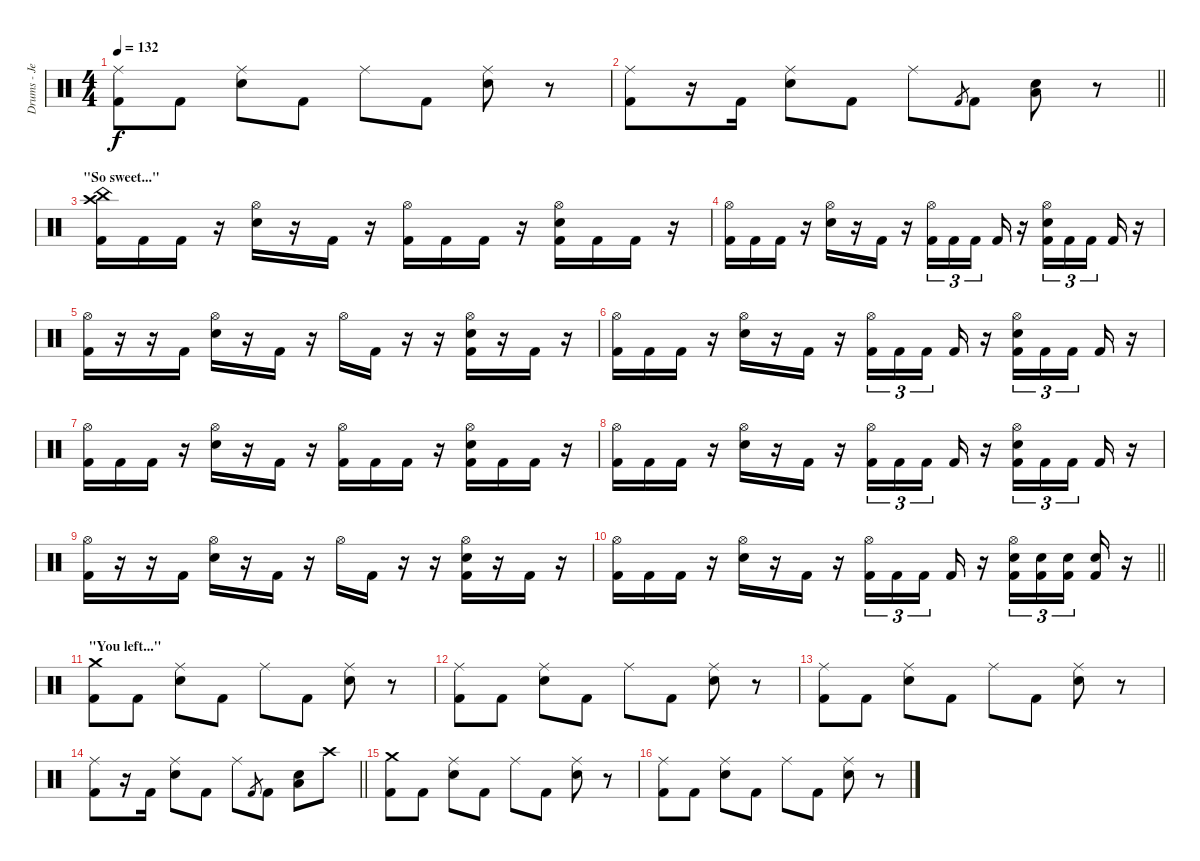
\track ("Drums - Jeroen" "Drums - Je") {instrument percussion}
\staff {score}
\articulation defaults
\ts (4 4)
\tempo 132
\clef neutral
\ks c
("Ride (middle)" "Kick (hit) 2").8{dy f} "Kick (hit) 2".8 ("Ride (middle)" "Electric Snare (hit)").8 "Kick (hit) 2".8 "Ride (middle)".8 "Kick (hit) 2".8 ("Ride (middle)" "Electric Snare (hit)").8 r.8 |
\barLineRight lightlight
("Ride (middle)" "Kick (hit) 2").8 r.16 "Kick (hit) 2".16 ("Ride (middle)" "Electric Snare (hit)").8 "Kick (hit) 2".8 "Ride (middle)".8 "Kick (hit) 2".8{gr} "Kick (hit) 2".8 ("Low Floor Tom (hit)" "Electric Snare (hit)").8 r.8 |
\section ("" "\"So sweet...\"")
("China (hit)" "Crash high (hit)" "Kick (hit) 2").16 "Kick (hit) 2".16 "Kick (hit) 2".16 r.16 ("Hi-Hat (open)" "Electric Snare (hit)").16 r.16 "Kick (hit) 2".16 r.16 ("Hi-Hat (open)" "Kick (hit) 2").16 "Kick (hit) 2".16 "Kick (hit) 2".16 r.16 ("Hi-Hat (open)" "Electric Snare (hit)" "Kick (hit) 2").16 "Kick (hit) 2".16 "Kick (hit) 2".16 r.16 |
("Hi-Hat (open)" "Kick (hit) 2").16 "Kick (hit) 2".16 "Kick (hit) 2".16 r.16 ("Hi-Hat (open)" "Electric Snare (hit)").16 r.16 "Kick (hit) 2".16 r.16 ("Hi-Hat (open)" "Kick (hit) 2").16{tu (3 2)} "Kick (hit) 2".16{tu (3 2)} "Kick (hit) 2".16{tu (3 2) beam splitsecondary} "Kick (hit) 2".16 r.16 ("Hi-Hat (open)" "Electric Snare (hit)" "Kick (hit) 2").16{tu (3 2)} "Kick (hit) 2".16{tu (3 2)} "Kick (hit) 2".16{tu (3 2) beam splitsecondary} "Kick (hit) 2".16 r.16 |
("Hi-Hat (open)" "Kick (hit) 2").16 r.16 r.16 "Kick (hit) 2".16 ("Hi-Hat (open)" "Electric Snare (hit)").16 r.16 "Kick (hit) 2".16 r.16 "Hi-Hat (open)".16 "Kick (hit) 2".16 r.16 r.16 ("Hi-Hat (open)" "Electric Snare (hit)" "Kick (hit) 2").16 r.16 "Kick (hit) 2".16 r.16 |
("Hi-Hat (open)" "Kick (hit) 2").16 "Kick (hit) 2".16 "Kick (hit) 2".16 r.16 ("Hi-Hat (open)" "Electric Snare (hit)").16 r.16 "Kick (hit) 2".16 r.16 ("Hi-Hat (open)" "Kick (hit) 2").16{tu (3 2)} "Kick (hit) 2".16{tu (3 2)} "Kick (hit) 2".16{tu (3 2) beam splitsecondary} "Kick (hit) 2".16 r.16 ("Hi-Hat (open)" "Electric Snare (hit)" "Kick (hit) 2").16{tu (3 2)} "Kick (hit) 2".16{tu (3 2)} "Kick (hit) 2".16{tu (3 2) beam splitsecondary} "Kick (hit) 2".16 r.16 |
("Hi-Hat (open)" "Kick (hit) 2").16 "Kick (hit) 2".16 "Kick (hit) 2".16 r.16 ("Hi-Hat (open)" "Electric Snare (hit)").16 r.16 "Kick (hit) 2".16 r.16 ("Hi-Hat (open)" "Kick (hit) 2").16 "Kick (hit) 2".16 "Kick (hit) 2".16 r.16 ("Hi-Hat (open)" "Electric Snare (hit)" "Kick (hit) 2").16 "Kick (hit) 2".16 "Kick (hit) 2".16 r.16 |
("Hi-Hat (open)" "Kick (hit) 2").16 "Kick (hit) 2".16 "Kick (hit) 2".16 r.16 ("Hi-Hat (open)" "Electric Snare (hit)").16 r.16 "Kick (hit) 2".16 r.16 ("Hi-Hat (open)" "Kick (hit) 2").16{tu (3 2)} "Kick (hit) 2".16{tu (3 2)} "Kick (hit) 2".16{tu (3 2) beam splitsecondary} "Kick (hit) 2".16 r.16 ("Hi-Hat (open)" "Electric Snare (hit)" "Kick (hit) 2").16{tu (3 2)} "Kick (hit) 2".16{tu (3 2)} "Kick (hit) 2".16{tu (3 2) beam splitsecondary} "Kick (hit) 2".16 r.16 |
("Hi-Hat (open)" "Kick (hit) 2").16 r.16 r.16 "Kick (hit) 2".16 ("Hi-Hat (open)" "Electric Snare (hit)").16 r.16 "Kick (hit) 2".16 r.16 "Hi-Hat (open)".16 "Kick (hit) 2".16 r.16 r.16 ("Hi-Hat (open)" "Electric Snare (hit)" "Kick (hit) 2").16 r.16 "Kick (hit) 2".16 r.16 |
\barLineRight lightlight
("Hi-Hat (open)" "Kick (hit) 2").16 "Kick (hit) 2".16 "Kick (hit) 2".16 r.16 ("Hi-Hat (open)" "Electric Snare (hit)").16 r.16 "Kick (hit) 2".16 r.16 ("Hi-Hat (open)" "Kick (hit) 2").16{tu (3 2)} "Kick (hit) 2".16{tu (3 2)} "Kick (hit) 2".16{tu (3 2) beam splitsecondary} "Kick (hit) 2".16 r.16 ("Hi-Hat (open)" "Electric Snare (hit)" "Kick (hit) 2").16{tu (3 2)} ("Electric Snare (hit)" "Kick (hit) 2").16{tu (3 2)} ("Electric Snare (hit)" "Kick (hit) 2").16{tu (3 2) beam splitsecondary} ("Electric Snare (hit)" "Kick (hit) 2").16 r.16 |
\section ("" "\"You left...\"")
("Crash medium (hit)" "Kick (hit) 2").8 "Kick (hit) 2".8 ("Ride (middle)" "Electric Snare (hit)").8 "Kick (hit) 2".8 "Ride (middle)".8 "Kick (hit) 2".8 ("Ride (middle)" "Electric Snare (hit)").8 r.8 |
("Ride (middle)" "Kick (hit) 2").8 "Kick (hit) 2".8 ("Ride (middle)" "Electric Snare (hit)").8 "Kick (hit) 2".8 "Ride (middle)".8 "Kick (hit) 2".8 ("Ride (middle)" "Electric Snare (hit)").8 r.8 |
("Ride (middle)" "Kick (hit) 2").8 "Kick (hit) 2".8 ("Ride (middle)" "Electric Snare (hit)").8 "Kick (hit) 2".8 "Ride (middle)".8 "Kick (hit) 2".8 ("Ride (middle)" "Electric Snare (hit)").8 r.8 |
\barLineRight lightlight
("Ride (middle)" "Kick (hit) 2").8 r.16 "Kick (hit) 2".16 ("Ride (middle)" "Electric Snare (hit)").8 "Kick (hit) 2".8 "Ride (middle)".8 "Kick (hit) 2".8{gr} "Kick (hit) 2".8 ("Low Floor Tom (hit)" "Electric Snare (hit)").8 "Crash high (hit)".8 |
("Crash medium (hit)" "Kick (hit) 2").8 "Kick (hit) 2".8 ("Ride (middle)" "Electric Snare (hit)").8 "Kick (hit) 2".8 "Ride (middle)".8 "Kick (hit) 2".8 ("Ride (middle)" "Electric Snare (hit)").8 r.8 |
("Ride (middle)" "Kick (hit) 2").8 "Kick (hit) 2".8 ("Ride (middle)" "Electric Snare (hit)").8 "Kick (hit) 2".8 "Ride (middle)".8 "Kick (hit) 2".8 ("Ride (middle)" "Electric Snare (hit)").8 r.8
